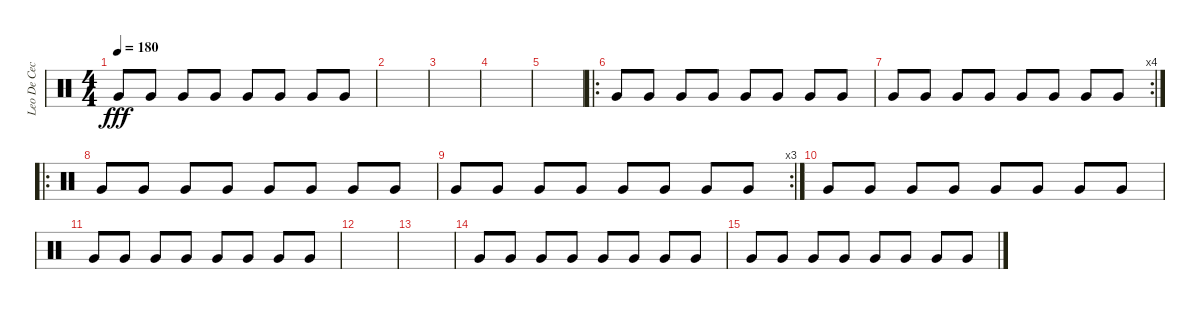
\track ("Leo De Cecco" "Leo De Cec") {instrument percussion}
\staff {score}
\articulation defaults
\ts (4 4)
\tempo 180
\clef neutral
\ks c "Very Low Tom (hit)".8{dy fff} "Very Low Tom (hit)".8 "Very Low Tom (hit)".8 "Very Low Tom (hit)".8 "Very Low Tom (hit)".8 "Very Low Tom (hit)".8 "Very Low Tom (hit)".8 "Very Low Tom (hit)".8
|
|
|
|
|
\ro "Very Low Tom (hit)".8 "Very Low Tom (hit)".8 "Very Low Tom (hit)".8 "Very Low Tom (hit)".8 "Very Low Tom (hit)".8 "Very Low Tom (hit)".8 "Very Low Tom (hit)".8 "Very Low Tom (hit)".8
|
\rc 4 "Very Low Tom (hit)".8 "Very Low Tom (hit)".8 "Very Low Tom (hit)".8 "Very Low Tom (hit)".8 "Very Low Tom (hit)".8 "Very Low Tom (hit)".8 "Very Low Tom (hit)".8 "Very Low Tom (hit)".8
|
\ro "Very Low Tom (hit)".8 "Very Low Tom (hit)".8 "Very Low Tom (hit)".8 "Very Low Tom (hit)".8 "Very Low Tom (hit)".8 "Very Low Tom (hit)".8 "Very Low Tom (hit)".8 "Very Low Tom (hit)".8
|
\rc 3 "Very Low Tom (hit)".8 "Very Low Tom (hit)".8 "Very Low Tom (hit)".8 "Very Low Tom (hit)".8 "Very Low Tom (hit)".8 "Very Low Tom (hit)".8 "Very Low Tom (hit)".8 "Very Low Tom (hit)".8
|
"Very Low Tom (hit)".8 "Very Low Tom (hit)".8 "Very Low Tom (hit)".8 "Very Low Tom (hit)".8 "Very Low Tom (hit)".8 "Very Low Tom (hit)".8 "Very Low Tom (hit)".8 "Very Low Tom (hit)".8 |
"Very Low Tom (hit)".8 "Very Low Tom (hit)".8 "Very Low Tom (hit)".8 "Very Low Tom (hit)".8 "Very Low Tom (hit)".8 "Very Low Tom (hit)".8 "Very Low Tom (hit)".8 "Very Low Tom (hit)".8 |
|
|
"Very Low Tom (hit)".8 "Very Low Tom (hit)".8 "Very Low Tom (hit)".8 "Very Low Tom (hit)".8 "Very Low Tom (hit)".8 "Very Low Tom (hit)".8 "Very Low Tom (hit)".8 "Very Low Tom (hit)".8 |
"Very Low Tom (hit)".8 "Very Low Tom (hit)".8 "Very Low Tom (hit)".8 "Very Low Tom (hit)".8 "Very Low Tom (hit)".8 "Very Low Tom (hit)".8 "Very Low Tom (hit)".8 "Very Low Tom (hit)".8
